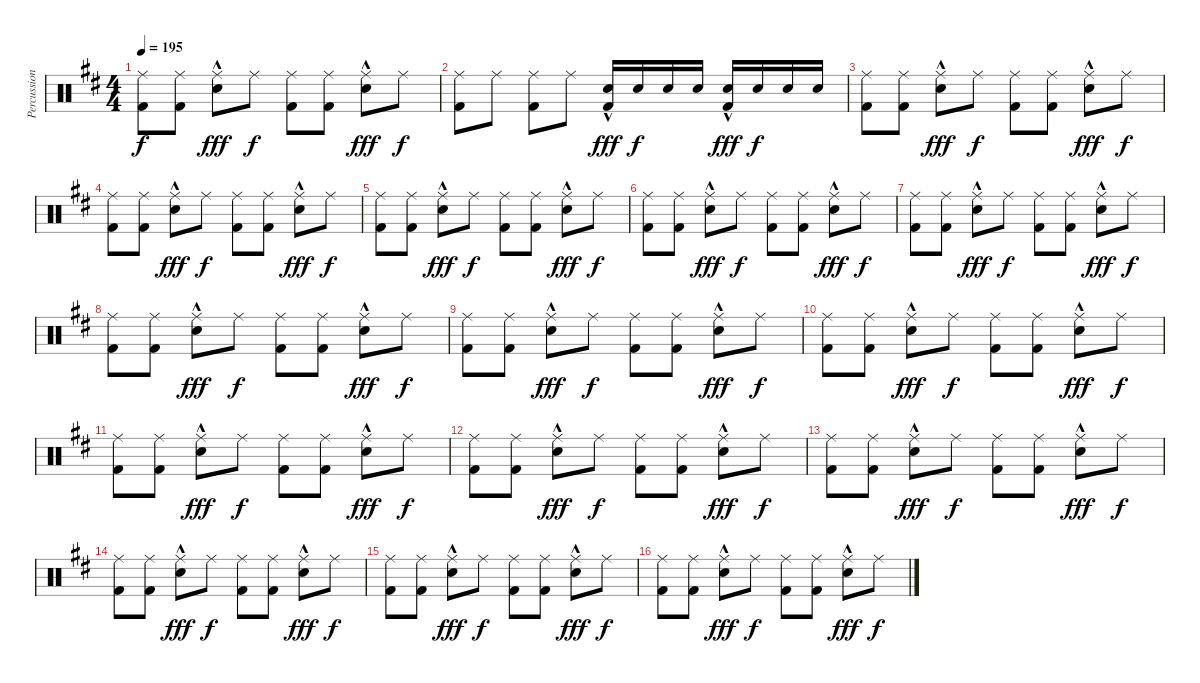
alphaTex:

\track ("Percussion" "Percussion") {instrument percussion}
\staff {score}
\articulation defaults
\ts (4 4)
\tempo 195
\clef neutral
\ks d
("Ride (middle)" "Kick (hit) 2").8{dy f} ("Ride (middle)" "Kick (hit) 2").8 ("Ride (middle)" "Electric Snare (hit)"{hac}).8{dy fff} "Ride (middle)".8{dy f} ("Ride (middle)" "Kick (hit) 2").8 ("Ride (middle)" "Kick (hit) 2").8 ("Ride (middle)" "Electric Snare (hit)"{hac}).8{dy fff} "Ride (middle)".8{dy f} |
("Ride (middle)" "Kick (hit) 2").8 "Ride (middle)".8 ("Ride (middle)" "Kick (hit) 2").8 "Ride (middle)".8 ("Electric Snare (hit)"{hac} "Kick (hit) 2").16{dy fff} "Electric Snare (hit)".16{dy f} "Electric Snare (hit)".16 "Electric Snare (hit)".16 ("Electric Snare (hit)"{hac} "Kick (hit) 2").16{dy fff} "Electric Snare (hit)".16{dy f} "Electric Snare (hit)".16 "Electric Snare (hit)".16 |
("Ride (middle)" "Kick (hit) 2").8 ("Ride (middle)" "Kick (hit) 2").8 ("Ride (middle)" "Electric Snare (hit)"{hac}).8{dy fff} "Ride (middle)".8{dy f} ("Ride (middle)" "Kick (hit) 2").8 ("Ride (middle)" "Kick (hit) 2").8 ("Ride (middle)" "Electric Snare (hit)"{hac}).8{dy fff} "Ride (middle)".8{dy f} |
("Ride (middle)" "Kick (hit) 2").8 ("Ride (middle)" "Kick (hit) 2").8 ("Ride (middle)" "Electric Snare (hit)"{hac}).8{dy fff} "Ride (middle)".8{dy f} ("Ride (middle)" "Kick (hit) 2").8 ("Ride (middle)" "Kick (hit) 2").8 ("Ride (middle)" "Electric Snare (hit)"{hac}).8{dy fff} "Ride (middle)".8{dy f} |
("Ride (middle)" "Kick (hit) 2").8 ("Ride (middle)" "Kick (hit) 2").8 ("Ride (middle)" "Electric Snare (hit)"{hac}).8{dy fff} "Ride (middle)".8{dy f} ("Ride (middle)" "Kick (hit) 2").8 ("Ride (middle)" "Kick (hit) 2").8 ("Ride (middle)" "Electric Snare (hit)"{hac}).8{dy fff} "Ride (middle)".8{dy f} |
("Ride (middle)" "Kick (hit) 2").8 ("Ride (middle)" "Kick (hit) 2").8 ("Ride (middle)" "Electric Snare (hit)"{hac}).8{dy fff} "Ride (middle)".8{dy f} ("Ride (middle)" "Kick (hit) 2").8 ("Ride (middle)" "Kick (hit) 2").8 ("Ride (middle)" "Electric Snare (hit)"{hac}).8{dy fff} "Ride (middle)".8{dy f} |
("Ride (middle)" "Kick (hit) 2").8 ("Ride (middle)" "Kick (hit) 2").8 ("Ride (middle)" "Electric Snare (hit)"{hac}).8{dy fff} "Ride (middle)".8{dy f} ("Ride (middle)" "Kick (hit) 2").8 ("Ride (middle)" "Kick (hit) 2").8 ("Ride (middle)" "Electric Snare (hit)"{hac}).8{dy fff} "Ride (middle)".8{dy f} |
("Ride (middle)" "Kick (hit) 2").8 ("Ride (middle)" "Kick (hit) 2").8 ("Ride (middle)" "Electric Snare (hit)"{hac}).8{dy fff} "Ride (middle)".8{dy f} ("Ride (middle)" "Kick (hit) 2").8 ("Ride (middle)" "Kick (hit) 2").8 ("Ride (middle)" "Electric Snare (hit)"{hac}).8{dy fff} "Ride (middle)".8{dy f} |
("Ride (middle)" "Kick (hit) 2").8 ("Ride (middle)" "Kick (hit) 2").8 ("Ride (middle)" "Electric Snare (hit)"{hac}).8{dy fff} "Ride (middle)".8{dy f} ("Ride (middle)" "Kick (hit) 2").8 ("Ride (middle)" "Kick (hit) 2").8 ("Ride (middle)" "Electric Snare (hit)"{hac}).8{dy fff} "Ride (middle)".8{dy f} |
("Ride (middle)" "Kick (hit) 2").8 ("Ride (middle)" "Kick (hit) 2").8 ("Ride (middle)" "Electric Snare (hit)"{hac}).8{dy fff} "Ride (middle)".8{dy f} ("Ride (middle)" "Kick (hit) 2").8 ("Ride (middle)" "Kick (hit) 2").8 ("Ride (middle)" "Electric Snare (hit)"{hac}).8{dy fff} "Ride (middle)".8{dy f} |
("Ride (middle)" "Kick (hit) 2").8 ("Ride (middle)" "Kick (hit) 2").8 ("Ride (middle)" "Electric Snare (hit)"{hac}).8{dy fff} "Ride (middle)".8{dy f} ("Ride (middle)" "Kick (hit) 2").8 ("Ride (middle)" "Kick (hit) 2").8 ("Ride (middle)" "Electric Snare (hit)"{hac}).8{dy fff} "Ride (middle)".8{dy f} |
("Ride (middle)" "Kick (hit) 2").8 ("Ride (middle)" "Kick (hit) 2").8 ("Ride (middle)" "Electric Snare (hit)"{hac}).8{dy fff} "Ride (middle)".8{dy f} ("Ride (middle)" "Kick (hit) 2").8 ("Ride (middle)" "Kick (hit) 2").8 ("Ride (middle)" "Electric Snare (hit)"{hac}).8{dy fff} "Ride (middle)".8{dy f} |
("Ride (middle)" "Kick (hit) 2").8 ("Ride (middle)" "Kick (hit) 2").8 ("Ride (middle)" "Electric Snare (hit)"{hac}).8{dy fff} "Ride (middle)".8{dy f} ("Ride (middle)" "Kick (hit) 2").8 ("Ride (middle)" "Kick (hit) 2").8 ("Ride (middle)" "Electric Snare (hit)"{hac}).8{dy fff} "Ride (middle)".8{dy f} |
("Ride (middle)" "Kick (hit) 2").8 ("Ride (middle)" "Kick (hit) 2").8 ("Ride (middle)" "Electric Snare (hit)"{hac}).8{dy fff} "Ride (middle)".8{dy f} ("Ride (middle)" "Kick (hit) 2").8 ("Ride (middle)" "Kick (hit) 2").8 ("Ride (middle)" "Electric Snare (hit)"{hac}).8{dy fff} "Ride (middle)".8{dy f} |
("Ride (middle)" "Kick (hit) 2").8 ("Ride (middle)" "Kick (hit) 2").8 ("Ride (middle)" "Electric Snare (hit)"{hac}).8{dy fff} "Ride (middle)".8{dy f} ("Ride (middle)" "Kick (hit) 2").8 ("Ride (middle)" "Kick (hit) 2").8 ("Ride (middle)" "Electric Snare (hit)"{hac}).8{dy fff} "Ride (middle)".8{dy f} |
("Ride (middle)" "Kick (hit) 2").8 ("Ride (middle)" "Kick (hit) 2").8 ("Ride (middle)" "Electric Snare (hit)"{hac}).8{dy fff} "Ride (middle)".8{dy f} ("Ride (middle)" "Kick (hit) 2").8 ("Ride (middle)" "Kick (hit) 2").8 ("Ride (middle)" "Electric Snare (hit)"{hac}).8{dy fff} "Ride (middle)".8{dy f}
